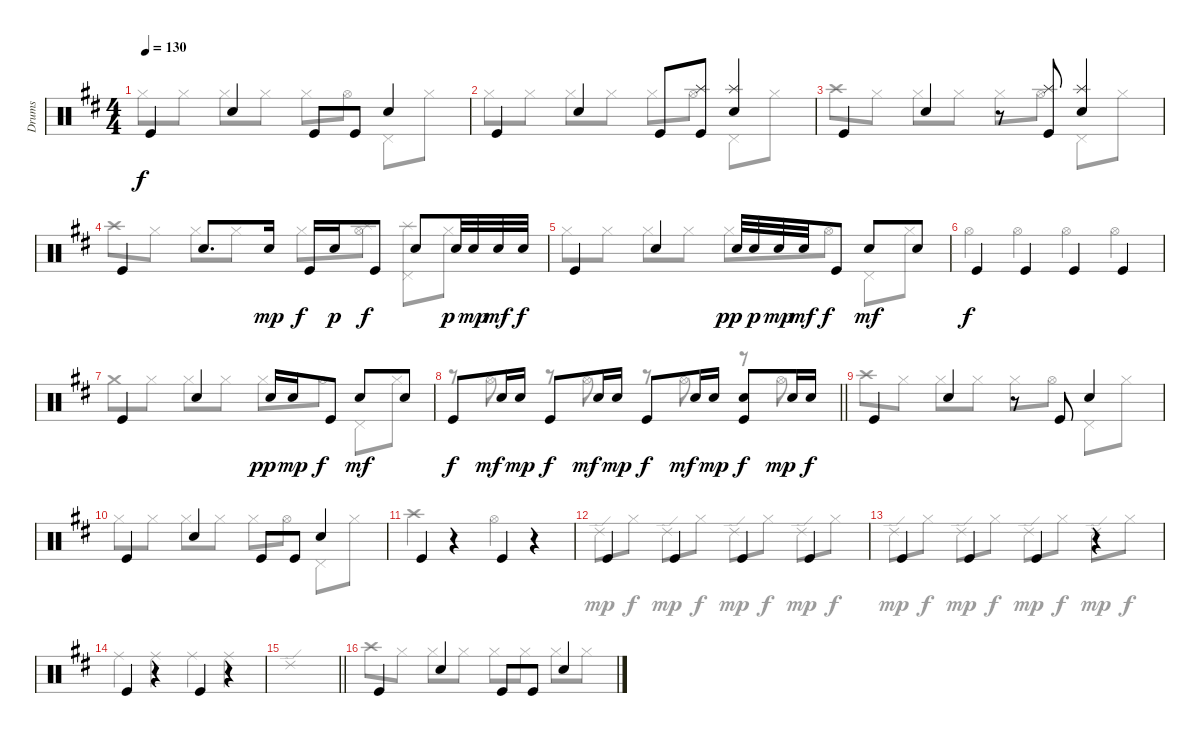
\track ("Drums" "Drums") {instrument percussion}
\staff {score}
\articulation defaults
\voice
\ts (4 4)
\tempo 130
\clef neutral
\ks d "Kick (hit)".4{dy f} "Snare (hit) 2".4 "Kick (hit)".8 "Kick (hit)".8 "Snare (hit) 2".4
|
"Kick (hit)".4 "Snare (hit) 2".4 "Kick (hit)".8 ("Splash (hit)" "Kick (hit)").8 ("Splash (hit)" "Snare (hit) 2").4 |
"Kick (hit)".4 "Snare (hit) 2".4 r.8 ("Splash (hit)" "Kick (hit)").8 ("Splash (hit)" "Snare (hit) 2").4 |
"Kick (hit)".4 "Snare (hit) 2".8{d} "Snare (hit) 2".16{dy mp} "Kick (hit)".16{dy f} "Snare (hit) 2".16{dy p} "Kick (hit)".8{dy f} "Snare (hit) 2".8 "Snare (hit) 2".32{dy p} "Snare (hit) 2".32{dy mp} "Snare (hit) 2".32{dy mf} "Snare (hit) 2".32{dy f} |
"Kick (hit)".4 "Snare (hit) 2".4 "Snare (hit) 2".32{dy pp} "Snare (hit) 2".32{dy p} "Snare (hit) 2".32{dy mp} "Snare (hit) 2".32{dy mf} "Kick (hit)".8{dy f} "Snare (hit) 2".8{dy mf} "Snare (hit) 2".8 |
"Kick (hit)".4{dy f} "Kick (hit)".4 "Kick (hit)".4 "Kick (hit)".4 |
"Kick (hit)".4 "Snare (hit) 2".4 "Snare (hit) 2".16{dy pp} "Snare (hit) 2".16{dy mp} "Kick (hit)".8{dy f} "Snare (hit) 2".8{dy mf} "Snare (hit) 2".8 |
\barLineRight lightlight "Kick (hit)".8{dy f} "Snare (hit) 2".16{dy mf} "Snare (hit) 2".16{dy mp} "Kick (hit)".8{dy f} "Snare (hit) 2".16{dy mf} "Snare (hit) 2".16{dy mp} "Kick (hit)".8{dy f} "Snare (hit) 2".16{dy mf} "Snare (hit) 2".16{dy mp}
("Snare (hit) 2" "Kick (hit)").8{dy f} "Snare (hit) 2".16{dy mp} "Snare (hit) 2".16{dy f} |
"Kick (hit)".4 "Snare (hit) 2".4 r.8 "Kick (hit)".8 "Snare (hit) 2".4 |
"Kick (hit)".4 "Snare (hit) 2".4 "Kick (hit)".8 "Kick (hit)".8 "Snare (hit) 2".4 |
"Kick (hit)".4 r.4 "Kick (hit)".4 r.4 |
"Kick (hit)".4 "Kick (hit)".4 "Kick (hit)".4 "Kick (hit)".4 |
"Kick (hit)".4 "Kick (hit)".4 "Kick (hit)".4 r.4 |
"Kick (hit)".4 r.4 "Kick (hit)".4 r.4 |
\barLineRight lightlight
|
"Kick (hit)".4 "Snare (hit) 2".4 "Kick (hit)".8 "Kick (hit)".8 "Snare (hit) 2".4
\voice
\clef neutral
\ottava regular
\simile none
\ks d "Hi-Hat (closed)".8{dy f} "Hi-Hat (closed)".8 "Hi-Hat (closed)".8 "Hi-Hat (closed)".8 "Hi-Hat (closed)".8 "Hi-Hat (open)".8 "Pedal Hi-Hat (hit)".8 "Hi-Hat (closed)".8
|
"Hi-Hat (closed)".8 "Hi-Hat (closed)".8 "Hi-Hat (closed)".8 "Hi-Hat (closed)".8 "Hi-Hat (closed)".8 "Hi-Hat (open)".8 "Pedal Hi-Hat (hit)".8 "Hi-Hat (closed)".8 |
"Crash high (hit)".8 "Hi-Hat (closed)".8 "Hi-Hat (closed)".8 "Hi-Hat (closed)".8 "Hi-Hat (closed)".8 "Hi-Hat (open)".8 "Pedal Hi-Hat (hit)".8 "Hi-Hat (closed)".8 |
"Crash high (hit)".8 "Hi-Hat (closed)".8 "Hi-Hat (closed)".8 "Hi-Hat (closed)".8 "Hi-Hat (closed)".8 ("Hi-Hat (open)" "Splash (hit)").8 ("Pedal Hi-Hat (hit)" "Splash (hit)").8 "Hi-Hat (closed)".8 |
"Hi-Hat (closed)".8 "Hi-Hat (closed)".8 "Hi-Hat (closed)".8 "Hi-Hat (closed)".8 "Hi-Hat (closed)".8 "Hi-Hat (open)".8 "Pedal Hi-Hat (hit)".8 "Hi-Hat (closed)".8 |
"Hi-Hat (open)".4 "Hi-Hat (open)".4 "Hi-Hat (open)".4 "Hi-Hat (open)".4 |
"Crash medium (hit)".8 "Hi-Hat (closed)".8 "Hi-Hat (closed)".8 "Hi-Hat (closed)".8 "Hi-Hat (closed)".8 "Hi-Hat (open)".8 "Pedal Hi-Hat (hit)".8 "Hi-Hat (closed)".8 |
\barLineRight lightlight
r.8 "Hi-Hat (open)".8 r.8 "Hi-Hat (open)".8 r.8 "Hi-Hat (open)".8 r.8 "Hi-Hat (open)".8 |
"Crash high (hit)".8 "Hi-Hat (closed)".8 "Hi-Hat (closed)".8 "Hi-Hat (closed)".8 "Hi-Hat (closed)".8 "Hi-Hat (open)".8 "Pedal Hi-Hat (hit)".8 "Hi-Hat (closed)".8 |
"Hi-Hat (closed)".8 "Hi-Hat (closed)".8 "Hi-Hat (closed)".8 "Hi-Hat (closed)".8 "Hi-Hat (closed)".8 "Hi-Hat (open)".8 "Pedal Hi-Hat (hit)".8 "Hi-Hat (closed)".8 |
"Crash high (hit)".4 r.4 "Hi-Hat (open)".4 r.4 |
"Ride (edge) 2".8{dy mp} "Hi-Hat (closed)".8{dy f} "Ride (edge) 2".8{dy mp} "Hi-Hat (closed)".8{dy f} "Ride (edge) 2".8{dy mp} "Hi-Hat (closed)".8{dy f} "Ride (edge) 2".8{dy mp} "Hi-Hat (closed)".8{dy f} |
"Ride (edge) 2".8{dy mp} "Hi-Hat (closed)".8{dy f} "Ride (edge) 2".8{dy mp} "Hi-Hat (closed)".8{dy f} "Ride (edge) 2".8{dy mp} "Hi-Hat (closed)".8{dy f} "Ride (edge) 2".8{dy mp} "Hi-Hat (closed)".8{dy f} |
"Ride (middle)".4 "Ride (middle)".4 "Ride (middle)".4 "Ride (middle)".4 |
\barLineRight lightlight "Ride (edge) 2".1
|
"Crash high (hit)".8 "Hi-Hat (closed)".8 "Hi-Hat (closed)".8 "Hi-Hat (closed)".8 "Hi-Hat (closed)".8 "Hi-Hat (closed)".8 "Hi-Hat (closed)".8 "Hi-Hat (closed)".8
